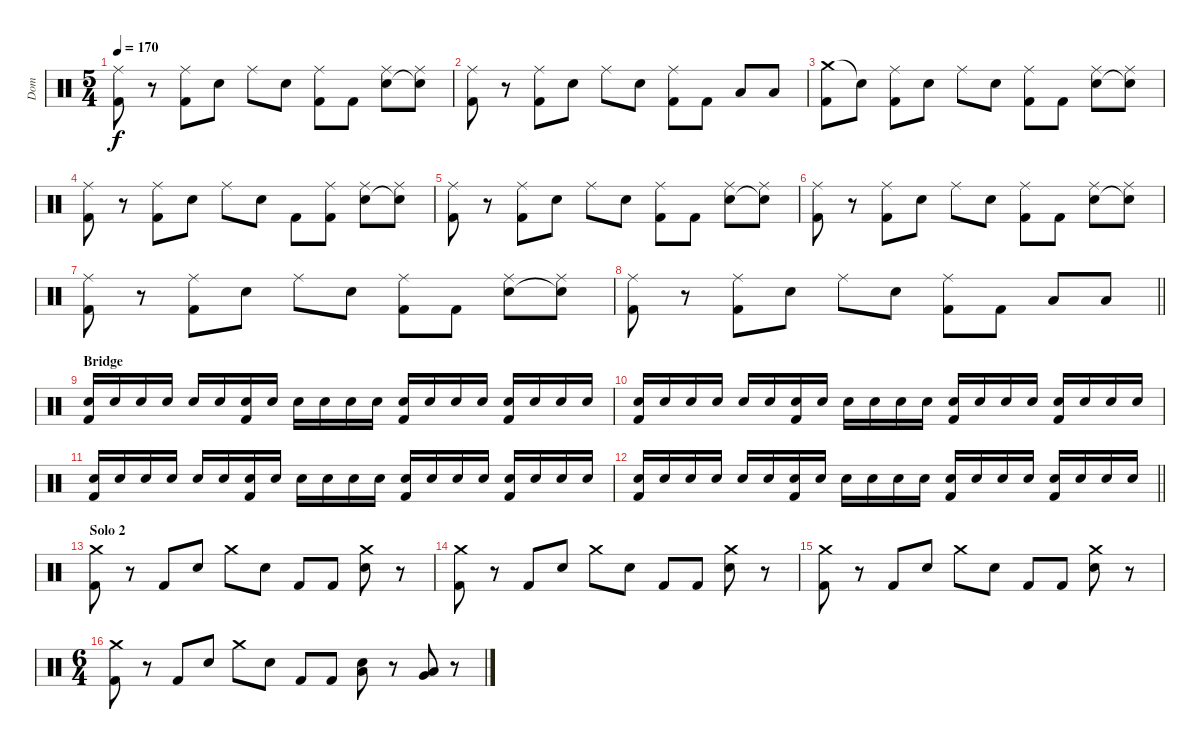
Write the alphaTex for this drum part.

\track ("Dom" "Dom") {instrument percussion}
\staff {score}
\articulation defaults
\ts (5 4)
\tempo 170
\clef neutral
\ks c
("Ride (middle)" "Kick (hit) 2").8{dy f} r.8 ("Ride (middle)" "Kick (hit) 2").8 "Electric Snare (hit)".8 "Ride (middle)".8 "Electric Snare (hit)".8 ("Ride (middle)" "Kick (hit) 2").8 "Kick (hit) 2".8 ("Ride (middle)" "Electric Snare (hit)").8 ("Ride (middle)" "Snare (hit)"{t}).8 |
("Ride (middle)" "Kick (hit) 2").8 r.8 ("Ride (middle)" "Kick (hit) 2").8 "Electric Snare (hit)".8 "Ride (middle)".8 "Electric Snare (hit)".8 ("Ride (middle)" "Kick (hit) 2").8 "Kick (hit) 2".8 "Low Tom (hit)".8 "Low Tom (hit)".8 |
("Crash medium (hit)" "Kick (hit) 2").8 "Snare (hit)"{t}.8 ("Ride (middle)" "Kick (hit) 2").8 "Electric Snare (hit)".8 "Ride (middle)".8 "Electric Snare (hit)".8 ("Ride (middle)" "Kick (hit) 2").8 "Kick (hit) 2".8 ("Ride (middle)" "Electric Snare (hit)").8 ("Ride (middle)" "Snare (hit)"{t}).8 |
("Ride (middle)" "Kick (hit) 2").8 r.8 ("Ride (middle)" "Kick (hit) 2").8 "Electric Snare (hit)".8 "Ride (middle)".8 "Electric Snare (hit)".8 "Kick (hit) 2".8 ("Ride (middle)" "Kick (hit) 2").8 ("Ride (middle)" "Electric Snare (hit)").8 ("Ride (middle)" "Snare (hit)"{t}).8 |
("Ride (middle)" "Kick (hit) 2").8 r.8 ("Ride (middle)" "Kick (hit) 2").8 "Electric Snare (hit)".8 "Ride (middle)".8 "Electric Snare (hit)".8 ("Ride (middle)" "Kick (hit) 2").8 "Kick (hit) 2".8 ("Ride (middle)" "Electric Snare (hit)").8 ("Ride (middle)" "Snare (hit)"{t}).8 |
("Ride (middle)" "Kick (hit) 2").8 r.8 ("Ride (middle)" "Kick (hit) 2").8 "Electric Snare (hit)".8 "Ride (middle)".8 "Electric Snare (hit)".8 ("Ride (middle)" "Kick (hit) 2").8 "Kick (hit) 2".8 ("Ride (middle)" "Electric Snare (hit)").8 ("Ride (middle)" "Snare (hit)"{t}).8 |
("Ride (middle)" "Kick (hit) 2").8 r.8 ("Ride (middle)" "Kick (hit) 2").8 "Electric Snare (hit)".8 "Ride (middle)".8 "Electric Snare (hit)".8 ("Ride (middle)" "Kick (hit) 2").8 "Kick (hit) 2".8 ("Ride (middle)" "Electric Snare (hit)").8 ("Ride (middle)" "Snare (hit)"{t}).8 |
\barLineRight lightlight
("Ride (middle)" "Kick (hit) 2").8 r.8 ("Ride (middle)" "Kick (hit) 2").8 "Electric Snare (hit)".8 "Ride (middle)".8 "Electric Snare (hit)".8 ("Ride (middle)" "Kick (hit) 2").8 "Kick (hit) 2".8 "Low Tom (hit)".8 "Low Tom (hit)".8 |
\section ("" "Bridge")
("Electric Snare (hit)" "Kick (hit) 2").16 "Electric Snare (hit)".16 "Electric Snare (hit)".16 "Electric Snare (hit)".16 "Electric Snare (hit)".16 "Electric Snare (hit)".16 ("Electric Snare (hit)" "Kick (hit) 2").16 "Electric Snare (hit)".16 "Electric Snare (hit)".16 "Electric Snare (hit)".16 "Electric Snare (hit)".16 "Electric Snare (hit)".16 ("Electric Snare (hit)" "Kick (hit) 2").16 "Electric Snare (hit)".16 "Electric Snare (hit)".16 "Electric Snare (hit)".16 ("Electric Snare (hit)" "Kick (hit) 2").16 "Electric Snare (hit)".16 "Electric Snare (hit)".16 "Electric Snare (hit)".16 |
("Electric Snare (hit)" "Kick (hit) 2").16 "Electric Snare (hit)".16 "Electric Snare (hit)".16 "Electric Snare (hit)".16 "Electric Snare (hit)".16 "Electric Snare (hit)".16 ("Electric Snare (hit)" "Kick (hit) 2").16 "Electric Snare (hit)".16 "Electric Snare (hit)".16 "Electric Snare (hit)".16 "Electric Snare (hit)".16 "Electric Snare (hit)".16 ("Electric Snare (hit)" "Kick (hit) 2").16 "Electric Snare (hit)".16 "Electric Snare (hit)".16 "Electric Snare (hit)".16 ("Electric Snare (hit)" "Kick (hit) 2").16 "Electric Snare (hit)".16 "Electric Snare (hit)".16 "Electric Snare (hit)".16 |
("Electric Snare (hit)" "Kick (hit) 2").16 "Electric Snare (hit)".16 "Electric Snare (hit)".16 "Electric Snare (hit)".16 "Electric Snare (hit)".16 "Electric Snare (hit)".16 ("Electric Snare (hit)" "Kick (hit) 2").16 "Electric Snare (hit)".16 "Electric Snare (hit)".16 "Electric Snare (hit)".16 "Electric Snare (hit)".16 "Electric Snare (hit)".16 ("Electric Snare (hit)" "Kick (hit) 2").16 "Electric Snare (hit)".16 "Electric Snare (hit)".16 "Electric Snare (hit)".16 ("Electric Snare (hit)" "Kick (hit) 2").16 "Electric Snare (hit)".16 "Electric Snare (hit)".16 "Electric Snare (hit)".16 |
\barLineRight lightlight
("Electric Snare (hit)" "Kick (hit) 2").16 "Electric Snare (hit)".16 "Electric Snare (hit)".16 "Electric Snare (hit)".16 "Electric Snare (hit)".16 "Electric Snare (hit)".16 ("Electric Snare (hit)" "Kick (hit) 2").16 "Electric Snare (hit)".16 "Electric Snare (hit)".16 "Electric Snare (hit)".16 "Electric Snare (hit)".16 "Electric Snare (hit)".16 ("Electric Snare (hit)" "Kick (hit) 2").16 "Electric Snare (hit)".16 "Electric Snare (hit)".16 "Electric Snare (hit)".16 ("Electric Snare (hit)" "Kick (hit) 2").16 "Electric Snare (hit)".16 "Electric Snare (hit)".16 "Electric Snare (hit)".16 |
\section ("" "Solo 2")
("Crash medium (hit)" "Kick (hit) 2").8 r.8 "Kick (hit) 2".8 "Electric Snare (hit)".8 "Crash medium (hit)".8 "Electric Snare (hit)".8 "Kick (hit) 2".8 "Kick (hit) 2".8 ("Crash medium (hit)" "Electric Snare (hit)").8 r.8 |
("Crash medium (hit)" "Kick (hit) 2").8 r.8 "Kick (hit) 2".8 "Electric Snare (hit)".8 "Crash medium (hit)".8 "Electric Snare (hit)".8 "Kick (hit) 2".8 "Kick (hit) 2".8 ("Crash medium (hit)" "Electric Snare (hit)").8 r.8 |
("Crash medium (hit)" "Kick (hit) 2").8 r.8 "Kick (hit) 2".8 "Electric Snare (hit)".8 "Crash medium (hit)".8 "Electric Snare (hit)".8 "Kick (hit) 2".8 "Kick (hit) 2".8 ("Crash medium (hit)" "Electric Snare (hit)").8 r.8 |
\ts (6 4)
("Crash medium (hit)" "Kick (hit) 2").8 r.8 "Kick (hit) 2".8 "Electric Snare (hit)".8 "Crash medium (hit)".8 "Electric Snare (hit)".8 "Kick (hit) 2".8 "Kick (hit) 2".8 ("Low Tom (hit)" "Electric Snare (hit)").8 r.8 ("Low Tom (hit)" "Very Low Tom (hit)").8 r.8
